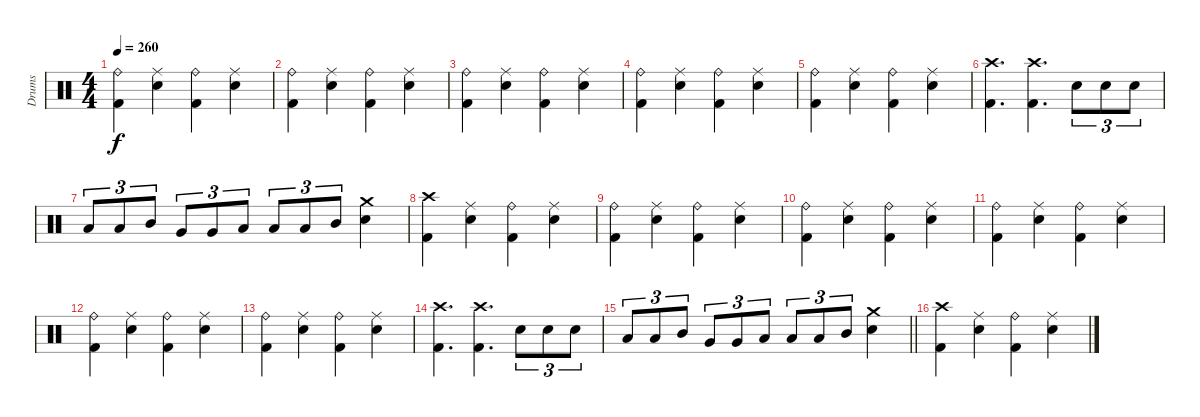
\track ("Drums" "Drums") {instrument percussion}
\staff {score}
\articulation defaults
\ts (4 4)
\tempo 260
\clef neutral
\ks c
("Ride (bell)" "Kick (hit) 2").4{dy f} ("Ride (middle)" "Electric Snare (hit)").4 ("Ride (bell)" "Kick (hit) 2").4 ("Ride (middle)" "Electric Snare (hit)").4 |
("Ride (bell)" "Kick (hit) 2").4 ("Ride (middle)" "Electric Snare (hit)").4 ("Ride (bell)" "Kick (hit) 2").4 ("Ride (middle)" "Electric Snare (hit)").4 |
("Ride (bell)" "Kick (hit) 2").4 ("Ride (middle)" "Electric Snare (hit)").4 ("Ride (bell)" "Kick (hit) 2").4 ("Ride (middle)" "Electric Snare (hit)").4 |
("Ride (bell)" "Kick (hit) 2").4 ("Ride (middle)" "Electric Snare (hit)").4 ("Ride (bell)" "Kick (hit) 2").4 ("Ride (middle)" "Electric Snare (hit)").4 |
("Ride (bell)" "Kick (hit) 2").4 ("Ride (middle)" "Electric Snare (hit)").4 ("Ride (bell)" "Kick (hit) 2").4 ("Ride (middle)" "Electric Snare (hit)").4 |
("Crash high (hit)" "Kick (hit) 2").4{d} ("Crash high (hit)" "Kick (hit) 2").4{d} "Electric Snare (hit)".8{tu (3 2)} "Electric Snare (hit)".8{tu (3 2)} "Electric Snare (hit)".8{tu (3 2)} |
"Low Tom (hit)".8{tu (3 2)} "Low Tom (hit)".8{tu (3 2)} "Mid Tom (hit)".8{tu (3 2)} "Very Low Tom (hit)".8{tu (3 2)} "Very Low Tom (hit)".8{tu (3 2)} "Low Tom (hit)".8{tu (3 2)} "Low Tom (hit)".8{tu (3 2)} "Low Tom (hit)".8{tu (3 2)} "Mid Tom (hit)".8{tu (3 2)} ("Crash medium (hit)" "Electric Snare (hit)").4 |
("Crash high (hit)" "Kick (hit) 2").4 ("Ride (middle)" "Electric Snare (hit)").4 ("Ride (bell)" "Kick (hit) 2").4 ("Ride (middle)" "Electric Snare (hit)").4 |
("Ride (bell)" "Kick (hit) 2").4 ("Ride (middle)" "Electric Snare (hit)").4 ("Ride (bell)" "Kick (hit) 2").4 ("Ride (middle)" "Electric Snare (hit)").4 |
("Ride (bell)" "Kick (hit) 2").4 ("Ride (middle)" "Electric Snare (hit)").4 ("Ride (bell)" "Kick (hit) 2").4 ("Ride (middle)" "Electric Snare (hit)").4 |
("Ride (bell)" "Kick (hit) 2").4 ("Ride (middle)" "Electric Snare (hit)").4 ("Ride (bell)" "Kick (hit) 2").4 ("Ride (middle)" "Electric Snare (hit)").4 |
("Ride (bell)" "Kick (hit) 2").4 ("Ride (middle)" "Electric Snare (hit)").4 ("Ride (bell)" "Kick (hit) 2").4 ("Ride (middle)" "Electric Snare (hit)").4 |
("Ride (bell)" "Kick (hit) 2").4 ("Ride (middle)" "Electric Snare (hit)").4 ("Ride (bell)" "Kick (hit) 2").4 ("Ride (middle)" "Electric Snare (hit)").4 |
("Crash high (hit)" "Kick (hit) 2").4{d} ("Crash high (hit)" "Kick (hit) 2").4{d} "Electric Snare (hit)".8{tu (3 2)} "Electric Snare (hit)".8{tu (3 2)} "Electric Snare (hit)".8{tu (3 2)} |
\barLineRight lightlight "Low Tom (hit)".8{tu (3 2)} "Low Tom (hit)".8{tu (3 2)} "Mid Tom (hit)".8{tu (3 2)} "Very Low Tom (hit)".8{tu (3 2)} "Very Low Tom (hit)".8{tu (3 2)} "Low Tom (hit)".8{tu (3 2)} "Low Tom (hit)".8{tu (3 2)} "Low Tom (hit)".8{tu (3 2)} "Mid Tom (hit)".8{tu (3 2)}
("Crash medium (hit)" "Electric Snare (hit)").4 |
("Crash high (hit)" "Kick (hit) 2").4 ("Ride (middle)" "Electric Snare (hit)").4 ("Ride (bell)" "Kick (hit) 2").4 ("Ride (middle)" "Electric Snare (hit)").4
